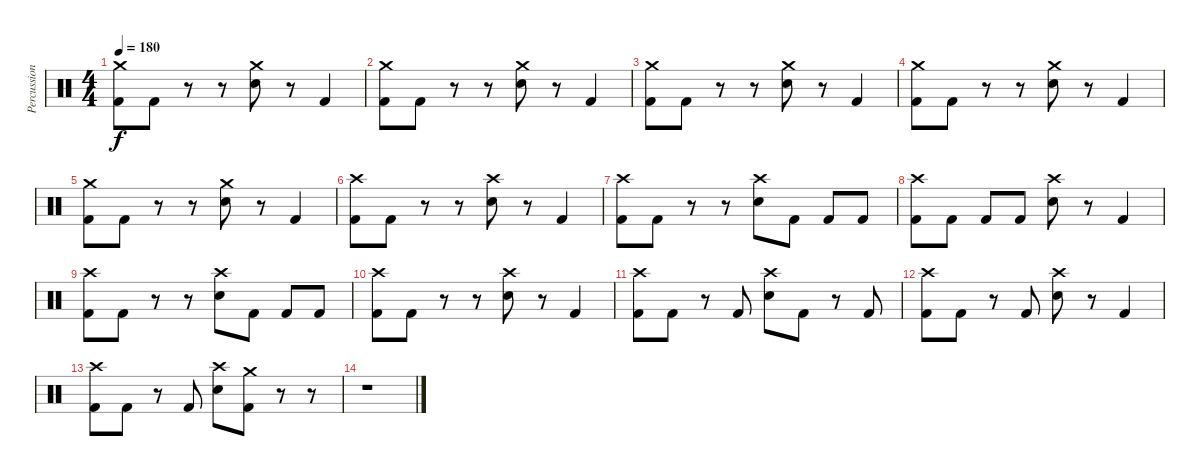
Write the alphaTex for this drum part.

\track ("Percussion" "Percussion") {instrument percussion}
\staff {score}
\articulation defaults
\ts (4 4)
\tempo 180
\clef neutral
\ks c
("Crash medium (hit)" "Kick (hit) 2").8{dy f} "Kick (hit) 2".8 r.8 r.8 ("Crash medium (hit)" "Electric Snare (hit)").8 r.8 "Kick (hit) 2".4 |
("Crash medium (hit)" "Kick (hit) 2").8 "Kick (hit) 2".8 r.8 r.8 ("Crash medium (hit)" "Electric Snare (hit)").8 r.8 "Kick (hit) 2".4 |
("Crash medium (hit)" "Kick (hit) 2").8 "Kick (hit) 2".8 r.8 r.8 ("Crash medium (hit)" "Electric Snare (hit)").8 r.8 "Kick (hit) 2".4 |
("Crash medium (hit)" "Kick (hit) 2").8 "Kick (hit) 2".8 r.8 r.8 ("Crash medium (hit)" "Electric Snare (hit)").8 r.8 "Kick (hit) 2".4 |
("Crash medium (hit)" "Kick (hit) 2").8 "Kick (hit) 2".8 r.8 r.8 ("Crash medium (hit)" "Electric Snare (hit)").8 r.8 "Kick (hit) 2".4 |
("Crash high (hit)" "Kick (hit) 2").8 "Kick (hit) 2".8 r.8 r.8 ("Crash high (hit)" "Electric Snare (hit)").8 r.8 "Kick (hit) 2".4 |
("Crash high (hit)" "Kick (hit) 2").8 "Kick (hit) 2".8 r.8 r.8 ("Crash high (hit)" "Electric Snare (hit)").8 "Kick (hit) 2".8 "Kick (hit) 2".8 "Kick (hit) 2".8 |
("Crash high (hit)" "Kick (hit) 2").8 "Kick (hit) 2".8 "Kick (hit) 2".8 "Kick (hit) 2".8 ("Crash high (hit)" "Electric Snare (hit)").8 r.8 "Kick (hit) 2".4 |
("Crash high (hit)" "Kick (hit) 2").8 "Kick (hit) 2".8 r.8 r.8 ("Crash high (hit)" "Electric Snare (hit)").8 "Kick (hit) 2".8 "Kick (hit) 2".8 "Kick (hit) 2".8 |
("Crash high (hit)" "Kick (hit) 2").8 "Kick (hit) 2".8 r.8 r.8 ("Crash high (hit)" "Electric Snare (hit)").8 r.8 "Kick (hit) 2".4 |
("Crash high (hit)" "Kick (hit) 2").8 "Kick (hit) 2".8 r.8 "Kick (hit) 2".8 ("Crash high (hit)" "Electric Snare (hit)").8 "Kick (hit) 2".8 r.8 "Kick (hit) 2".8 |
("Crash high (hit)" "Kick (hit) 2").8 "Kick (hit) 2".8 r.8 "Kick (hit) 2".8 ("Crash high (hit)" "Electric Snare (hit)").8 r.8 "Kick (hit) 2".4 |
("Crash high (hit)" "Kick (hit) 2").8 "Kick (hit) 2".8 r.8 "Kick (hit) 2".8 ("Crash high (hit)" "Electric Snare (hit)").8 ("Crash medium (hit)" "Kick (hit) 2").8 r.8 r.8 |
r.1
